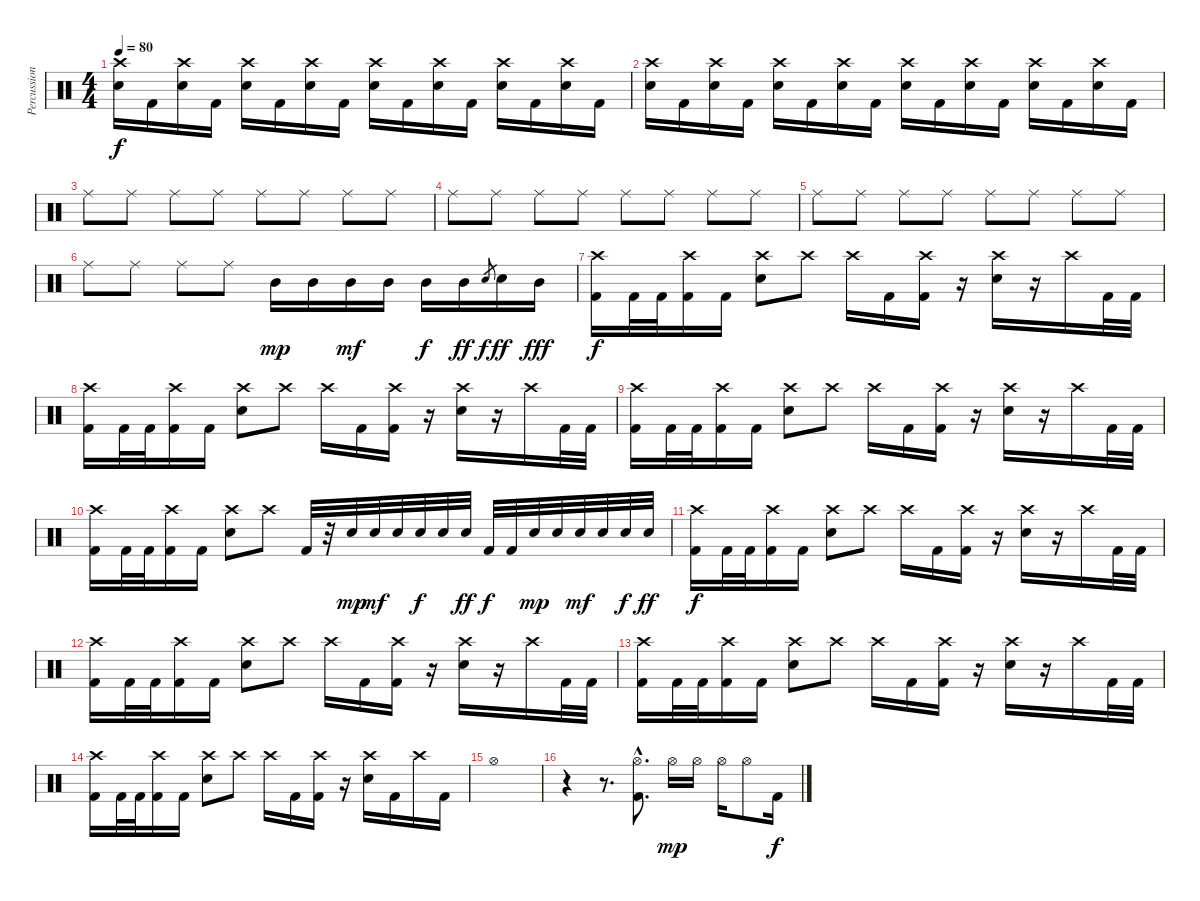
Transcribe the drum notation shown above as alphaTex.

\track ("Percussion" "Percussion") {instrument percussion}
\staff {score}
\articulation defaults
\ts (4 4)
\tempo 80
\clef neutral
\ks c
("Crash high (hit)" "Electric Snare (hit)").16{dy f} "Kick (hit) 2".16 ("Crash high (hit)" "Electric Snare (hit)").16 "Kick (hit) 2".16 ("Crash high (hit)" "Electric Snare (hit)").16 "Kick (hit) 2".16 ("Crash high (hit)" "Electric Snare (hit)").16 "Kick (hit) 2".16 ("Crash high (hit)" "Electric Snare (hit)").16 "Kick (hit) 2".16 ("Crash high (hit)" "Electric Snare (hit)").16 "Kick (hit) 2".16 ("Crash high (hit)" "Electric Snare (hit)").16 "Kick (hit) 2".16 ("Crash high (hit)" "Electric Snare (hit)").16 "Kick (hit) 2".16 |
("Crash high (hit)" "Electric Snare (hit)").16 "Kick (hit) 2".16 ("Crash high (hit)" "Electric Snare (hit)").16 "Kick (hit) 2".16 ("Crash high (hit)" "Electric Snare (hit)").16 "Kick (hit) 2".16 ("Crash high (hit)" "Electric Snare (hit)").16 "Kick (hit) 2".16 ("Crash high (hit)" "Electric Snare (hit)").16 "Kick (hit) 2".16 ("Crash high (hit)" "Electric Snare (hit)").16 "Kick (hit) 2".16 ("Crash high (hit)" "Electric Snare (hit)").16 "Kick (hit) 2".16 ("Crash high (hit)" "Electric Snare (hit)").16 "Kick (hit) 2".16 |
"Ride (middle)".8 "Ride (middle)".8 "Ride (middle)".8 "Ride (middle)".8 "Ride (middle)".8 "Ride (middle)".8 "Ride (middle)".8 "Ride (middle)".8 |
"Ride (middle)".8 "Ride (middle)".8 "Ride (middle)".8 "Ride (middle)".8 "Ride (middle)".8 "Ride (middle)".8 "Ride (middle)".8 "Ride (middle)".8 |
"Ride (middle)".8 "Ride (middle)".8 "Ride (middle)".8 "Ride (middle)".8 "Ride (middle)".8 "Ride (middle)".8 "Ride (middle)".8 "Ride (middle)".8 |
"Ride (middle)".8 "Ride (middle)".8 "Ride (middle)".8 "Ride (middle)".8 "Mid Tom (hit)".16{dy mp} "Mid Tom (hit)".16 "Mid Tom (hit)".16{dy mf} "Mid Tom (hit)".16 "Mid Tom (hit)".16{dy f} "Mid Tom (hit)".16{dy ff} "Electric Snare (hit)".8{gr dy f} "Electric Snare (hit)".16{dy ff} "Mid Tom (hit)".16{dy fff} |
("Crash high (hit)" "Kick (hit) 2").16{dy f} "Kick (hit) 2".32 "Kick (hit) 2".32 ("Crash high (hit)" "Kick (hit) 2").16 "Kick (hit) 2".16 ("Crash high (hit)" "Electric Snare (hit)").8 "Crash high (hit)".8 "Crash high (hit)".16 "Kick (hit) 2".16 ("Crash high (hit)" "Kick (hit) 2").16 r.16 ("Crash high (hit)" "Electric Snare (hit)").16 r.16 "Crash high (hit)".16 "Kick (hit) 2".32 "Kick (hit) 2".32 |
("Crash high (hit)" "Kick (hit) 2").16 "Kick (hit) 2".32 "Kick (hit) 2".32 ("Crash high (hit)" "Kick (hit) 2").16 "Kick (hit) 2".16 ("Crash high (hit)" "Electric Snare (hit)").8 "Crash high (hit)".8 "Crash high (hit)".16 "Kick (hit) 2".16 ("Crash high (hit)" "Kick (hit) 2").16 r.16 ("Crash high (hit)" "Electric Snare (hit)").16 r.16 "Crash high (hit)".16 "Kick (hit) 2".32 "Kick (hit) 2".32 |
("Crash high (hit)" "Kick (hit) 2").16 "Kick (hit) 2".32 "Kick (hit) 2".32 ("Crash high (hit)" "Kick (hit) 2").16 "Kick (hit) 2".16 ("Crash high (hit)" "Electric Snare (hit)").8 "Crash high (hit)".8 "Crash high (hit)".16 "Kick (hit) 2".16 ("Crash high (hit)" "Kick (hit) 2").16 r.16 ("Crash high (hit)" "Electric Snare (hit)").16 r.16 "Crash high (hit)".16 "Kick (hit) 2".32 "Kick (hit) 2".32 |
("Crash high (hit)" "Kick (hit) 2").16 "Kick (hit) 2".32 "Kick (hit) 2".32 ("Crash high (hit)" "Kick (hit) 2").16 "Kick (hit) 2".16 ("Crash high (hit)" "Electric Snare (hit)").8 "Crash high (hit)".8 "Kick (hit) 2".32 r.32 "Electric Snare (hit)".32{dy mp} "Electric Snare (hit)".32{dy mf} "Electric Snare (hit)".32 "Electric Snare (hit)".32{dy f} "Electric Snare (hit)".32 "Electric Snare (hit)".32{dy ff} "Kick (hit) 2".32{dy f} "Kick (hit) 2".32 "Electric Snare (hit)".32{dy mp} "Electric Snare (hit)".32 "Electric Snare (hit)".32{dy mf} "Electric Snare (hit)".32 "Electric Snare (hit)".32{dy f} "Electric Snare (hit)".32{dy ff} |
("Crash high (hit)" "Kick (hit) 2").16{dy f} "Kick (hit) 2".32 "Kick (hit) 2".32 ("Crash high (hit)" "Kick (hit) 2").16 "Kick (hit) 2".16 ("Crash high (hit)" "Electric Snare (hit)").8 "Crash high (hit)".8 "Crash high (hit)".16 "Kick (hit) 2".16 ("Crash high (hit)" "Kick (hit) 2").16 r.16 ("Crash high (hit)" "Electric Snare (hit)").16 r.16 "Crash high (hit)".16 "Kick (hit) 2".32 "Kick (hit) 2".32 |
("Crash high (hit)" "Kick (hit) 2").16 "Kick (hit) 2".32 "Kick (hit) 2".32 ("Crash high (hit)" "Kick (hit) 2").16 "Kick (hit) 2".16 ("Crash high (hit)" "Electric Snare (hit)").8 "Crash high (hit)".8 "Crash high (hit)".16 "Kick (hit) 2".16 ("Crash high (hit)" "Kick (hit) 2").16 r.16 ("Crash high (hit)" "Electric Snare (hit)").16 r.16 "Crash high (hit)".16 "Kick (hit) 2".32 "Kick (hit) 2".32 |
("Crash high (hit)" "Kick (hit) 2").16 "Kick (hit) 2".32 "Kick (hit) 2".32 ("Crash high (hit)" "Kick (hit) 2").16 "Kick (hit) 2".16 ("Crash high (hit)" "Electric Snare (hit)").8 "Crash high (hit)".8 "Crash high (hit)".16 "Kick (hit) 2".16 ("Crash high (hit)" "Kick (hit) 2").16 r.16 ("Crash high (hit)" "Electric Snare (hit)").16 r.16 "Crash high (hit)".16 "Kick (hit) 2".32 "Kick (hit) 2".32 |
("Crash high (hit)" "Kick (hit) 2").16 "Kick (hit) 2".32 "Kick (hit) 2".32 ("Crash high (hit)" "Kick (hit) 2").16 "Kick (hit) 2".16 ("Crash high (hit)" "Electric Snare (hit)").8 "Crash high (hit)".8 "Crash high (hit)".16 "Kick (hit) 2".16 ("Crash high (hit)" "Kick (hit) 2").16 r.16 ("Crash high (hit)" "Electric Snare (hit)").16 "Kick (hit) 2".16 "Crash high (hit)".16 "Kick (hit) 2".16 |
"Hi-Hat (open)".1 |
r.4 r.8{d} ("Hi-Hat (open)"{hac} "Kick (hit) 2"{hac}).8{d} "Hi-Hat (open)".16{dy mp} "Hi-Hat (open)".16 "Hi-Hat (open)".16 "Hi-Hat (open)".8 "Kick (hit) 2".16{dy f}
